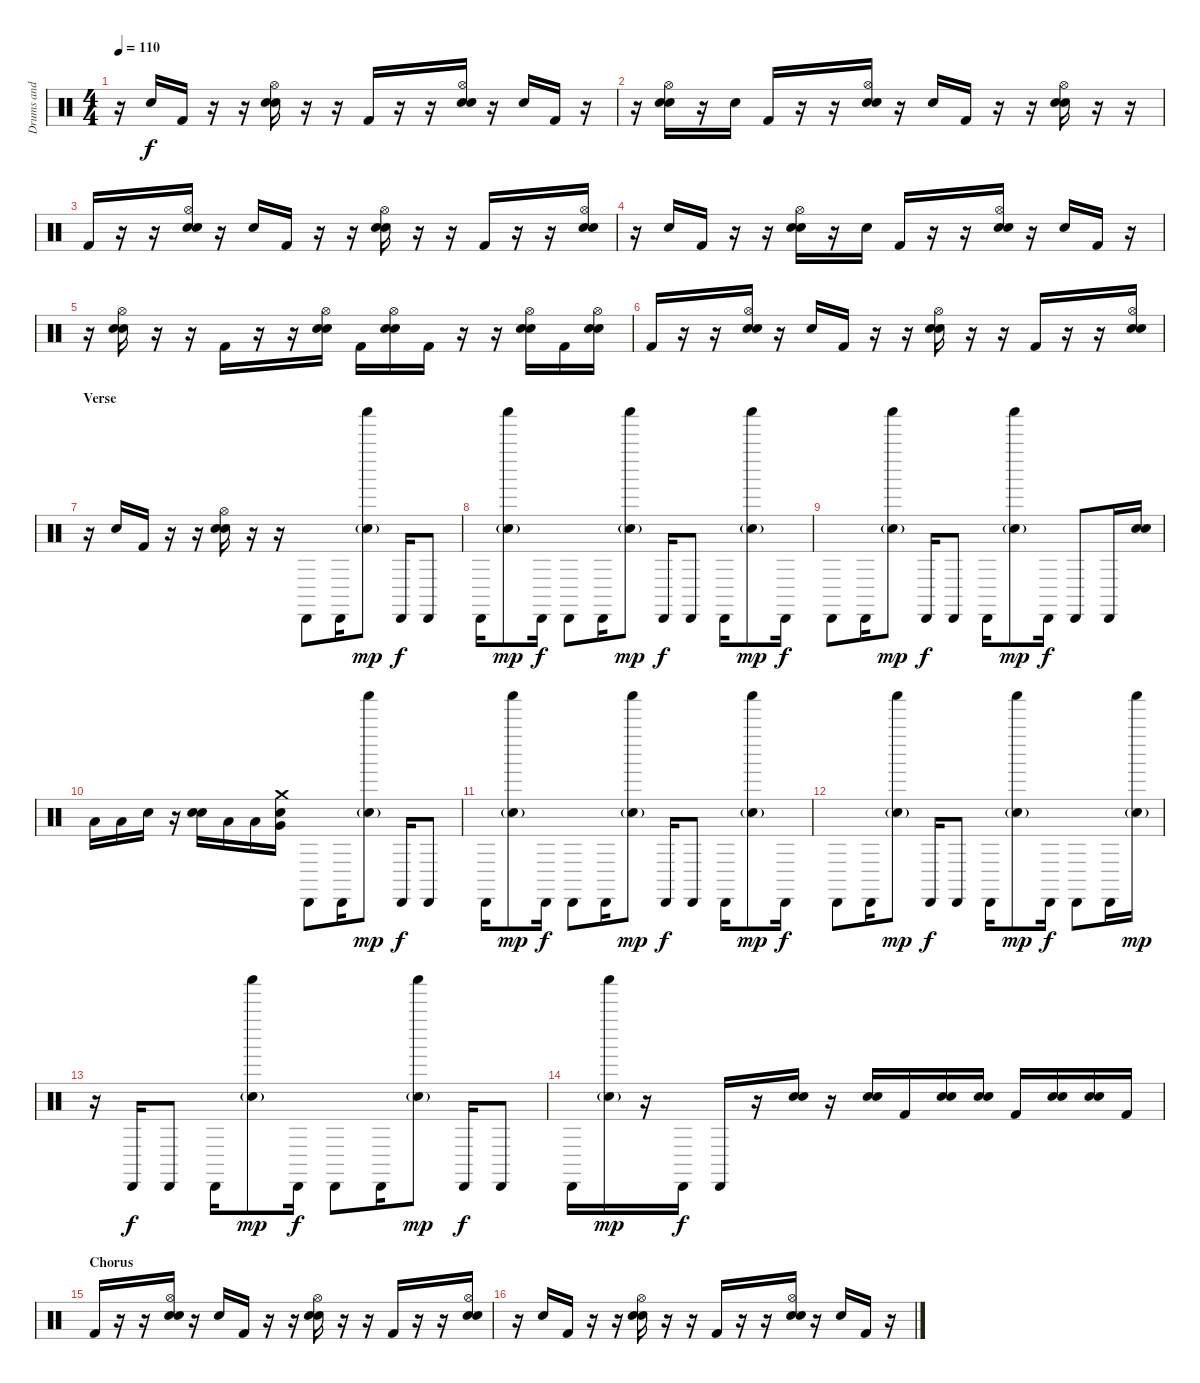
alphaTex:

\track ("Drums and Claps" "Drums and ") {instrument percussion}
\staff {score}
\articulation defaults
\ts (4 4)
\tempo 110
\clef neutral
\ks c
r.16{dy f} "Hand Clap (hit)".16 "Kick (hit) 2".16 r.16 r.16 ("Hi-Hat (open)" "Hand Clap (hit)" "Snare (hit) 2").16 r.16 r.16 "Kick (hit) 2".16 r.16 r.16 ("Hi-Hat (open)" "Hand Clap (hit)" "Snare (hit) 2").16 r.16 "Hand Clap (hit)".16 "Kick (hit) 2".16 r.16 |
r.16 ("Hi-Hat (open)" "Hand Clap (hit)" "Snare (hit) 2").16 r.16 "Snare (hit) 2".16 "Kick (hit) 2".16 r.16 r.16 ("Hi-Hat (open)" "Hand Clap (hit)" "Snare (hit) 2").16 r.16 "Hand Clap (hit)".16 "Kick (hit) 2".16 r.16 r.16 ("Hi-Hat (open)" "Hand Clap (hit)" "Snare (hit) 2").16 r.16 r.16 |
"Kick (hit) 2".16 r.16 r.16 ("Hi-Hat (open)" "Hand Clap (hit)" "Snare (hit) 2").16 r.16 "Hand Clap (hit)".16 "Kick (hit) 2".16 r.16 r.16 ("Hi-Hat (open)" "Hand Clap (hit)" "Snare (hit) 2").16 r.16 r.16 "Kick (hit) 2".16 r.16 r.16 ("Hi-Hat (open)" "Hand Clap (hit)" "Snare (hit) 2").16 |
r.16 "Hand Clap (hit)".16 "Kick (hit) 2".16 r.16 r.16 ("Hi-Hat (open)" "Hand Clap (hit)" "Snare (hit) 2").16 r.16 "Snare (hit) 2".16 "Kick (hit) 2".16 r.16 r.16 ("Hi-Hat (open)" "Hand Clap (hit)" "Snare (hit) 2").16 r.16 "Hand Clap (hit)".16 "Kick (hit) 2".16 r.16 |
r.16 ("Hi-Hat (open)" "Hand Clap (hit)" "Snare (hit) 2").16 r.16 r.16 "Kick (hit) 2".16 r.16 r.16 ("Hi-Hat (open)" "Electric Snare (hit)" "Snare (hit) 2").16 "Kick (hit) 2".16 ("Hi-Hat (open)" "Electric Snare (hit)" "Snare (hit) 2").16 "Kick (hit) 2".16 r.16 r.16 ("Hi-Hat (open)" "Electric Snare (hit)" "Snare (hit) 2").16 "Kick (hit) 2".16 ("Hi-Hat (open)" "Electric Snare (hit)" "Snare (hit) 2").16 |
"Kick (hit) 2".16 r.16 r.16 ("Hi-Hat (open)" "Hand Clap (hit)" "Snare (hit) 2").16 r.16 "Hand Clap (hit)".16 "Kick (hit) 2".16 r.16 r.16 ("Hi-Hat (open)" "Hand Clap (hit)" "Snare (hit) 2").16 r.16 r.16 "Kick (hit) 2".16 r.16 r.16 ("Hi-Hat (open)" "Hand Clap (hit)" "Snare (hit) 2").16 |
\section ("" "Verse")
r.16 "Hand Clap (hit)".16 "Kick (hit) 2".16 r.16 r.16 ("Hi-Hat (open)" "Hand Clap (hit)" "Snare (hit) 2").16 r.16 r.16 "Cabasa (hit)".8 "Cabasa (hit)".16 ("Shaker (hit)" "Snare (hit) 2"{g}).8{dy mp} "Cabasa (hit)".16{dy f} "Cabasa (hit)".8 |
"Cabasa (hit)".16 ("Shaker (hit)" "Snare (hit) 2"{g}).8{dy mp} "Cabasa (hit)".16{dy f} "Cabasa (hit)".8 "Cabasa (hit)".16 ("Shaker (hit)" "Snare (hit) 2"{g}).8{dy mp} "Cabasa (hit)".16{dy f} "Cabasa (hit)".8 "Cabasa (hit)".16 ("Shaker (hit)" "Snare (hit) 2"{g}).8{dy mp} "Cabasa (hit)".16{dy f} |
"Cabasa (hit)".8 "Cabasa (hit)".16 ("Shaker (hit)" "Snare (hit) 2"{g}).8{dy mp} "Cabasa (hit)".16{dy f} "Cabasa (hit)".8 "Cabasa (hit)".16 ("Shaker (hit)" "Snare (hit) 2"{g}).8{dy mp} "Cabasa (hit)".16{dy f} "Cabasa (hit)".8 "Cabasa (hit)".16 ("Snare (hit) 2" "Electric Snare (hit)").16 |
"Low Tom (hit)".16 "Low Tom (hit)".16 "Snare (hit) 2".16 r.16 ("Snare (hit) 2" "Electric Snare (hit)").16 "Low Tom (hit)".16 "Low Tom (hit)".16 ("Snare (hit) 2" "Very Low Tom (hit)" "Crash medium (hit)").16 "Cabasa (hit)".8 "Cabasa (hit)".16 ("Shaker (hit)" "Snare (hit) 2"{g}).8{dy mp} "Cabasa (hit)".16{dy f} "Cabasa (hit)".8 |
"Cabasa (hit)".16 ("Shaker (hit)" "Snare (hit) 2"{g}).8{dy mp} "Cabasa (hit)".16{dy f} "Cabasa (hit)".8 "Cabasa (hit)".16 ("Shaker (hit)" "Snare (hit) 2"{g}).8{dy mp} "Cabasa (hit)".16{dy f} "Cabasa (hit)".8 "Cabasa (hit)".16 ("Shaker (hit)" "Snare (hit) 2"{g}).8{dy mp} "Cabasa (hit)".16{dy f} |
"Cabasa (hit)".8 "Cabasa (hit)".16 ("Shaker (hit)" "Snare (hit) 2"{g}).8{dy mp} "Cabasa (hit)".16{dy f} "Cabasa (hit)".8 "Cabasa (hit)".16 ("Shaker (hit)" "Snare (hit) 2"{g}).8{dy mp} "Cabasa (hit)".16{dy f} "Cabasa (hit)".8 "Cabasa (hit)".16 ("Shaker (hit)" "Snare (hit) 2"{g}).16{dy mp} |
r.16 "Cabasa (hit)".16{dy f} "Cabasa (hit)".8 "Cabasa (hit)".16 ("Shaker (hit)" "Snare (hit) 2"{g}).8{dy mp} "Cabasa (hit)".16{dy f} "Cabasa (hit)".8 "Cabasa (hit)".16 ("Shaker (hit)" "Snare (hit) 2"{g}).8{dy mp} "Cabasa (hit)".16{dy f} "Cabasa (hit)".8 |
"Cabasa (hit)".16 ("Shaker (hit)" "Snare (hit) 2"{g}).16{dy mp} r.16 "Cabasa (hit)".16{dy f} "Cabasa (hit)".16 r.16 ("Electric Snare (hit)" "Snare (hit) 2").16 r.16 ("Electric Snare (hit)" "Snare (hit) 2").16 "Kick (hit) 2".16 ("Electric Snare (hit)" "Snare (hit) 2").16 ("Electric Snare (hit)" "Snare (hit) 2").16 "Kick (hit) 2".16 ("Electric Snare (hit)" "Snare (hit) 2").16 ("Electric Snare (hit)" "Snare (hit) 2").16 "Kick (hit) 2".16 |
\section ("" "Chorus")
"Kick (hit) 2".16 r.16 r.16 ("Hi-Hat (open)" "Hand Clap (hit)" "Snare (hit) 2").16 r.16 "Hand Clap (hit)".16 "Kick (hit) 2".16 r.16 r.16 ("Hi-Hat (open)" "Hand Clap (hit)" "Snare (hit) 2").16 r.16 r.16 "Kick (hit) 2".16 r.16 r.16 ("Hi-Hat (open)" "Hand Clap (hit)" "Snare (hit) 2").16 |
r.16 "Hand Clap (hit)".16 "Kick (hit) 2".16 r.16 r.16 ("Hi-Hat (open)" "Hand Clap (hit)" "Snare (hit) 2").16 r.16 r.16 "Kick (hit) 2".16 r.16 r.16 ("Hi-Hat (open)" "Hand Clap (hit)" "Snare (hit) 2").16 r.16 "Hand Clap (hit)".16 "Kick (hit) 2".16 r.16
